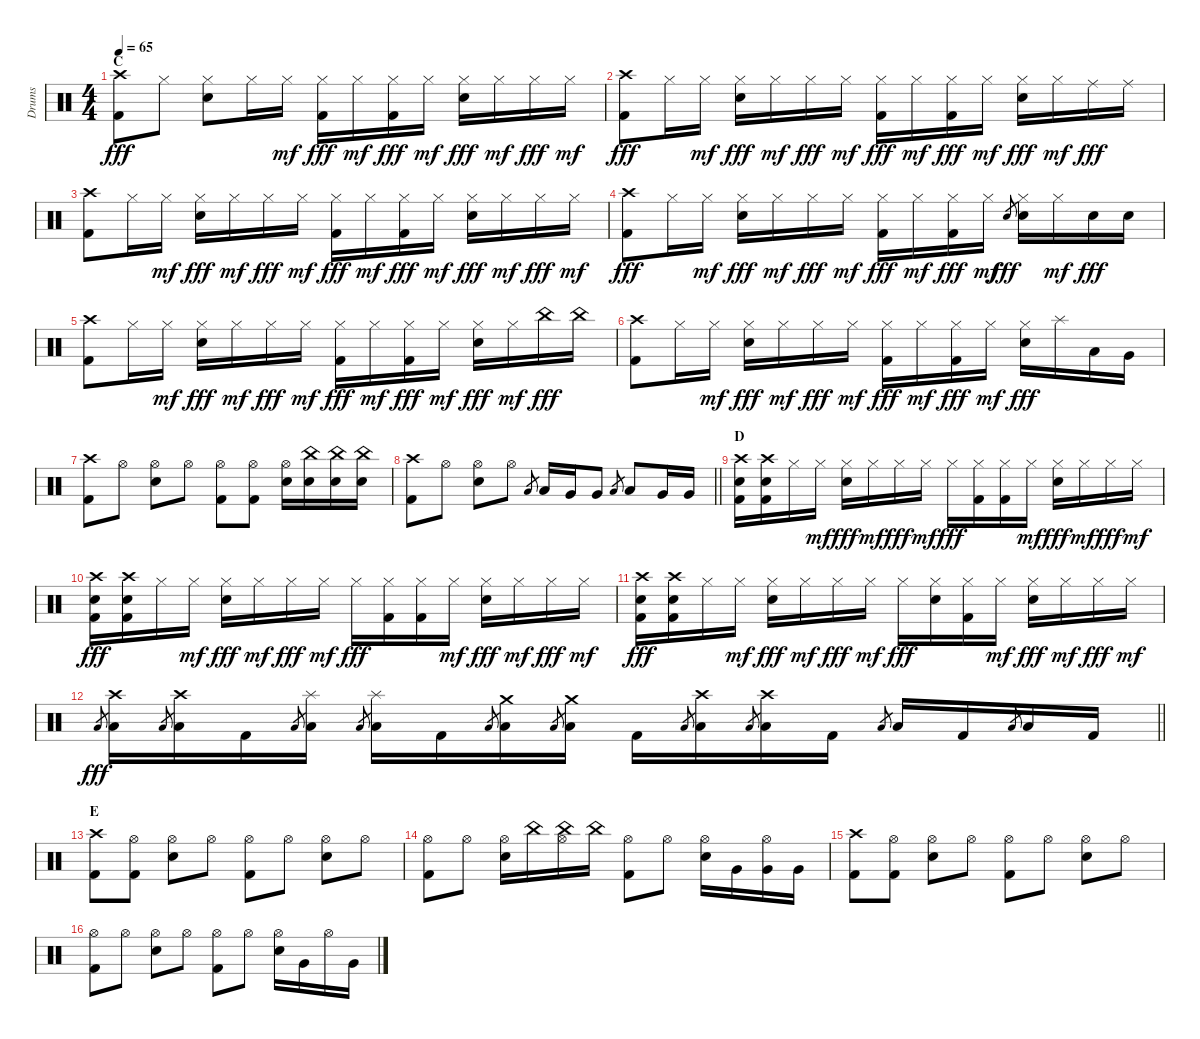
\track ("Drums" "Drums") {instrument percussion}
\staff {score}
\articulation defaults
\ts (4 4)
\section ("" "C")
\tempo 65
\clef neutral
\ks c
("Crash high (hit)" "Kick (hit) 2").8{dy fff} "Hi-Hat (closed)".8 ("Hi-Hat (closed)" "Snare (hit) 2").8 "Hi-Hat (closed)".16 "Hi-Hat (closed)".16{dy mf} ("Hi-Hat (closed)" "Kick (hit) 2").16{dy fff} "Hi-Hat (closed)".16{dy mf} ("Hi-Hat (closed)" "Kick (hit) 2").16{dy fff} "Hi-Hat (closed)".16{dy mf} ("Hi-Hat (closed)" "Snare (hit) 2").16{dy fff} "Hi-Hat (closed)".16{dy mf} "Hi-Hat (closed)".16{dy fff} "Hi-Hat (closed)".16{dy mf} |
("Crash high (hit)" "Kick (hit) 2").8{dy fff} "Hi-Hat (closed)".16 "Hi-Hat (closed)".16{dy mf} ("Hi-Hat (closed)" "Snare (hit) 2").16{dy fff} "Hi-Hat (closed)".16{dy mf} "Hi-Hat (closed)".16{dy fff} "Hi-Hat (closed)".16{dy mf} ("Hi-Hat (closed)" "Kick (hit) 2").16{dy fff} "Hi-Hat (closed)".16{dy mf} ("Hi-Hat (closed)" "Kick (hit) 2").16{dy fff} "Hi-Hat (closed)".16{dy mf} ("Hi-Hat (closed)" "Snare (hit) 2").16{dy fff} "Hi-Hat (closed)".16{dy mf} "Ride (middle)".16{dy fff} "Ride (middle)".16 |
("Crash high (hit)" "Kick (hit) 2").8 "Hi-Hat (closed)".16 "Hi-Hat (closed)".16{dy mf} ("Hi-Hat (closed)" "Snare (hit) 2").16{dy fff} "Hi-Hat (closed)".16{dy mf} "Hi-Hat (closed)".16{dy fff} "Hi-Hat (closed)".16{dy mf} ("Hi-Hat (closed)" "Kick (hit) 2").16{dy fff} "Hi-Hat (closed)".16{dy mf} ("Hi-Hat (closed)" "Kick (hit) 2").16{dy fff} "Hi-Hat (closed)".16{dy mf} ("Hi-Hat (closed)" "Snare (hit) 2").16{dy fff} "Hi-Hat (closed)".16{dy mf} "Hi-Hat (closed)".16{dy fff} "Hi-Hat (closed)".16{dy mf} |
("Crash high (hit)" "Kick (hit) 2").8{dy fff} "Hi-Hat (closed)".16 "Hi-Hat (closed)".16{dy mf} ("Hi-Hat (closed)" "Snare (hit) 2").16{dy fff} "Hi-Hat (closed)".16{dy mf} "Hi-Hat (closed)".16{dy fff} "Hi-Hat (closed)".16{dy mf} ("Hi-Hat (closed)" "Kick (hit) 2").16{dy fff} "Hi-Hat (closed)".16{dy mf} ("Hi-Hat (closed)" "Kick (hit) 2").16{dy fff} "Hi-Hat (closed)".16{dy mf} "Snare (hit) 2".8{gr dy fff} ("Hi-Hat (closed)" "Snare (hit) 2").16 "Hi-Hat (closed)".16{dy mf} "Snare (hit) 2".16{dy fff} "Snare (hit) 2".16 |
("Crash high (hit)" "Kick (hit) 2").8 "Hi-Hat (closed)".16 "Hi-Hat (closed)".16{dy mf} ("Hi-Hat (closed)" "Snare (hit) 2").16{dy fff} "Hi-Hat (closed)".16{dy mf} "Hi-Hat (closed)".16{dy fff} "Hi-Hat (closed)".16{dy mf} ("Hi-Hat (closed)" "Kick (hit) 2").16{dy fff} "Hi-Hat (closed)".16{dy mf} ("Hi-Hat (closed)" "Kick (hit) 2").16{dy fff} "Hi-Hat (closed)".16{dy mf} ("Hi-Hat (closed)" "Snare (hit) 2").16{dy fff} "Hi-Hat (closed)".16{dy mf} "China (hit)".16{dy fff} "China (hit)".16 |
("Crash high (hit)" "Kick (hit) 2").8 "Hi-Hat (closed)".16 "Hi-Hat (closed)".16{dy mf} ("Hi-Hat (closed)" "Snare (hit) 2").16{dy fff} "Hi-Hat (closed)".16{dy mf} "Hi-Hat (closed)".16{dy fff} "Hi-Hat (closed)".16{dy mf} ("Hi-Hat (closed)" "Kick (hit) 2").16{dy fff} "Hi-Hat (closed)".16{dy mf} ("Hi-Hat (closed)" "Kick (hit) 2").16{dy fff} "Hi-Hat (closed)".16{dy mf} ("Hi-Hat (closed)" "Snare (hit) 2").16{dy fff} "Splash (hit)".16 "Low Tom (hit)".16 "Very Low Tom (hit)".16 |
("Crash high (hit)" "Kick (hit) 2").8 "Hi-Hat (open)".8 ("Hi-Hat (open)" "Snare (hit) 2").8 "Hi-Hat (open)".8 ("Hi-Hat (open)" "Kick (hit) 2").8 ("Hi-Hat (open)" "Kick (hit) 2").8 ("Hi-Hat (open)" "Snare (hit) 2").16 ("China (hit)" "Snare (hit) 2").16 ("China (hit)" "Snare (hit) 2").16 ("China (hit)" "Snare (hit) 2").16 |
\barLineRight lightlight
("Crash high (hit)" "Kick (hit) 2").8 "Hi-Hat (open)".8 ("Hi-Hat (open)" "Snare (hit) 2").8 "Hi-Hat (open)".8 "Low Tom (hit)".8{gr} "Low Tom (hit)".16 "Very Low Tom (hit)".16 "Very Low Tom (hit)".8 "Low Tom (hit)".8{gr} "Low Tom (hit)".8 "Very Low Tom (hit)".16 "Very Low Tom (hit)".16 |
\section ("" "D")
("Crash high (hit)" "Snare (hit) 2" "Kick (hit) 2").16 ("Crash high (hit)" "Snare (hit) 2" "Kick (hit) 2").16 "Hi-Hat (closed)".16 "Hi-Hat (closed)".16{dy mf} ("Hi-Hat (closed)" "Snare (hit) 2").16{dy fff} "Hi-Hat (closed)".16{dy mf} "Hi-Hat (closed)".16{dy fff} "Hi-Hat (closed)".16{dy mf} "Hi-Hat (closed)".16{dy fff} ("Hi-Hat (closed)" "Kick (hit) 2").16 ("Hi-Hat (closed)" "Kick (hit) 2").16 "Hi-Hat (closed)".16{dy mf} ("Hi-Hat (closed)" "Snare (hit) 2").16{dy fff} "Hi-Hat (closed)".16{dy mf} "Hi-Hat (closed)".16{dy fff} "Hi-Hat (closed)".16{dy mf} |
("Crash high (hit)" "Snare (hit) 2" "Kick (hit) 2").16{dy fff} ("Crash high (hit)" "Snare (hit) 2" "Kick (hit) 2").16 "Hi-Hat (closed)".16 "Hi-Hat (closed)".16{dy mf} ("Hi-Hat (closed)" "Snare (hit) 2").16{dy fff} "Hi-Hat (closed)".16{dy mf} "Hi-Hat (closed)".16{dy fff} "Hi-Hat (closed)".16{dy mf} "Hi-Hat (closed)".16{dy fff} ("Hi-Hat (closed)" "Kick (hit) 2").16 ("Hi-Hat (closed)" "Kick (hit) 2").16 "Hi-Hat (closed)".16{dy mf} ("Hi-Hat (closed)" "Snare (hit) 2").16{dy fff} "Hi-Hat (closed)".16{dy mf} "Hi-Hat (closed)".16{dy fff} "Hi-Hat (closed)".16{dy mf} |
("Crash high (hit)" "Snare (hit) 2" "Kick (hit) 2").16{dy fff} ("Crash high (hit)" "Snare (hit) 2" "Kick (hit) 2").16 "Hi-Hat (closed)".16 "Hi-Hat (closed)".16{dy mf} ("Hi-Hat (closed)" "Snare (hit) 2").16{dy fff} "Hi-Hat (closed)".16{dy mf} "Hi-Hat (closed)".16{dy fff} "Hi-Hat (closed)".16{dy mf} "Hi-Hat (closed)".16{dy fff} ("Hi-Hat (closed)" "Snare (hit) 2").16 ("Hi-Hat (closed)" "Kick (hit) 2").16 "Hi-Hat (closed)".16{dy mf} ("Hi-Hat (closed)" "Snare (hit) 2").16{dy fff} "Hi-Hat (closed)".16{dy mf} "Hi-Hat (closed)".16{dy fff} "Hi-Hat (closed)".16{dy mf} |
\barLineRight lightlight "Low Tom (hit)".8{gr dy fff}
("Crash high (hit)" "Low Tom (hit)").16 "Low Tom (hit)".8{gr} ("Crash high (hit)" "Low Tom (hit)").16 "Kick (hit) 2".16 "Low Tom (hit)".8{gr} ("Splash (hit)" "Low Tom (hit)").16 "Low Tom (hit)".8{gr} ("Splash (hit)" "Low Tom (hit)").16 "Kick (hit) 2".16 "Low Tom (hit)".8{gr} ("Crash medium (hit)" "Low Tom (hit)").16 "Low Tom (hit)".8{gr} ("Crash medium (hit)" "Low Tom (hit)").16 "Kick (hit) 2".16 "Low Tom (hit)".8{gr} ("Crash high (hit)" "Low Tom (hit)").16 "Low Tom (hit)".8{gr} ("Crash high (hit)" "Low Tom (hit)").16 "Kick (hit) 2".16 "Low Tom (hit)".8{gr} "Low Tom (hit)".16 "Kick (hit) 2".16 "Low Tom (hit)".8{gr} "Low Tom (hit)".16 "Kick (hit) 2".16 |
\section ("" "E")
("Crash high (hit)" "Kick (hit) 2").8 ("Hi-Hat (open)" "Kick (hit) 2").8 ("Hi-Hat (open)" "Snare (hit) 2").8 "Hi-Hat (open)".8 ("Hi-Hat (open)" "Kick (hit) 2").8 "Hi-Hat (open)".8 ("Hi-Hat (open)" "Snare (hit) 2").8 "Hi-Hat (open)".8 |
("Hi-Hat (open)" "Kick (hit) 2").8 "Hi-Hat (open)".8 ("Hi-Hat (open)" "Snare (hit) 2").16 "China (hit)".16 ("Hi-Hat (open)" "China (hit)").16 "China (hit)".16 ("Hi-Hat (open)" "Kick (hit) 2").8 "Hi-Hat (open)".8 ("Hi-Hat (open)" "Snare (hit) 2").16 "Very Low Tom (hit)".16 ("Hi-Hat (open)" "Very Low Tom (hit)").16 "Very Low Tom (hit)".16 |
("Crash high (hit)" "Kick (hit) 2").8 ("Hi-Hat (open)" "Kick (hit) 2").8 ("Hi-Hat (open)" "Snare (hit) 2").8 "Hi-Hat (open)".8 ("Hi-Hat (open)" "Kick (hit) 2").8 "Hi-Hat (open)".8 ("Hi-Hat (open)" "Snare (hit) 2").8 "Hi-Hat (open)".8 |
("Hi-Hat (open)" "Kick (hit) 2").8 "Hi-Hat (open)".8 ("Hi-Hat (open)" "Snare (hit) 2").8 "Hi-Hat (open)".8 ("Hi-Hat (open)" "Kick (hit) 2").8 "Hi-Hat (open)".8 ("Hi-Hat (open)" "Snare (hit) 2").16 "Very Low Tom (hit)".16 "Hi-Hat (open)".16 "Very Low Tom (hit)".16
